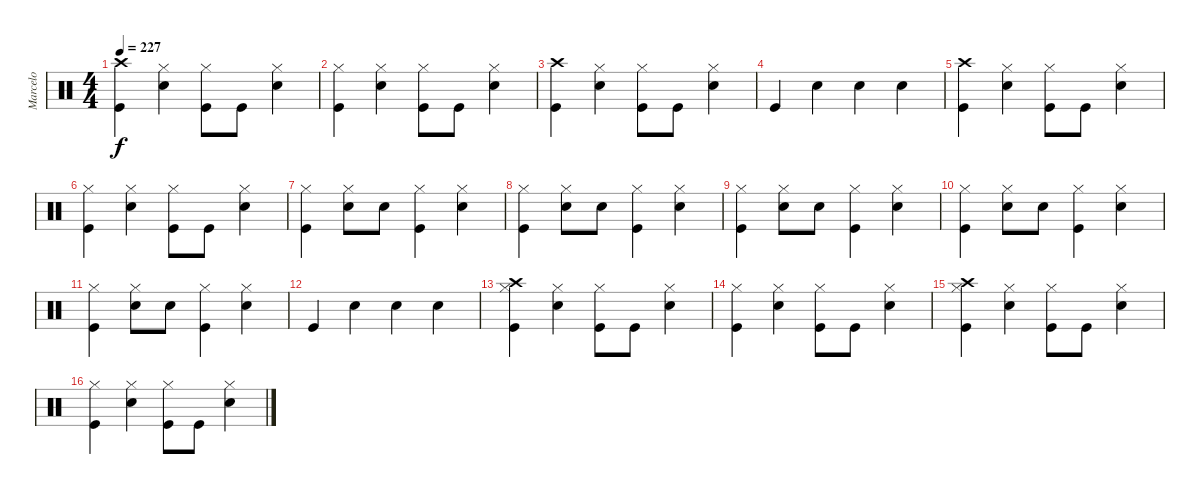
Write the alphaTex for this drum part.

\track ("Marcelo" "Marcelo") {instrument percussion}
\staff {score}
\articulation defaults
\ts (4 4)
\tempo 227
\clef neutral
\ks c
("Crash high (hit)" "Kick (hit)").4{dy f} ("Hi-Hat (closed)" "Snare (hit) 2").4 ("Hi-Hat (closed)" "Kick (hit)").8 "Kick (hit)".8 ("Hi-Hat (closed)" "Snare (hit) 2").4 |
("Hi-Hat (closed)" "Kick (hit)").4 ("Hi-Hat (closed)" "Snare (hit) 2").4 ("Hi-Hat (closed)" "Kick (hit)").8 "Kick (hit)".8 ("Hi-Hat (closed)" "Snare (hit) 2").4 |
("Crash high (hit)" "Kick (hit)").4 ("Hi-Hat (closed)" "Snare (hit) 2").4 ("Hi-Hat (closed)" "Kick (hit)").8 "Kick (hit)".8 ("Hi-Hat (closed)" "Snare (hit) 2").4 |
"Kick (hit)".4 "Snare (hit) 2".4 "Snare (hit) 2".4 "Snare (hit) 2".4 |
("Crash high (hit)" "Kick (hit)").4 ("Hi-Hat (closed)" "Snare (hit) 2").4 ("Hi-Hat (closed)" "Kick (hit)").8 "Kick (hit)".8 ("Hi-Hat (closed)" "Snare (hit) 2").4 |
("Hi-Hat (closed)" "Kick (hit)").4 ("Hi-Hat (closed)" "Snare (hit) 2").4 ("Hi-Hat (closed)" "Kick (hit)").8 "Kick (hit)".8 ("Hi-Hat (closed)" "Snare (hit) 2").4 |
("Hi-Hat (closed)" "Kick (hit)").4 ("Hi-Hat (closed)" "Snare (hit) 2").8 "Snare (hit) 2".8 ("Hi-Hat (closed)" "Kick (hit)").4 ("Hi-Hat (closed)" "Snare (hit) 2").4 |
("Hi-Hat (closed)" "Kick (hit)").4 ("Hi-Hat (closed)" "Snare (hit) 2").8 "Snare (hit) 2".8 ("Hi-Hat (closed)" "Kick (hit)").4 ("Hi-Hat (closed)" "Snare (hit) 2").4 |
("Hi-Hat (closed)" "Kick (hit)").4 ("Hi-Hat (closed)" "Snare (hit) 2").8 "Snare (hit) 2".8 ("Hi-Hat (closed)" "Kick (hit)").4 ("Hi-Hat (closed)" "Snare (hit) 2").4 |
("Hi-Hat (closed)" "Kick (hit)").4 ("Hi-Hat (closed)" "Snare (hit) 2").8 "Snare (hit) 2".8 ("Hi-Hat (closed)" "Kick (hit)").4 ("Hi-Hat (closed)" "Snare (hit) 2").4 |
("Hi-Hat (closed)" "Kick (hit)").4 ("Hi-Hat (closed)" "Snare (hit) 2").8 "Snare (hit) 2".8 ("Hi-Hat (closed)" "Kick (hit)").4 ("Hi-Hat (closed)" "Snare (hit) 2").4 |
"Kick (hit)".4 "Snare (hit) 2".4 "Snare (hit) 2".4 "Snare (hit) 2".4 |
("Crash high (hit)" "Hi-Hat (closed)" "Kick (hit)").4 ("Hi-Hat (closed)" "Snare (hit) 2").4 ("Hi-Hat (closed)" "Kick (hit)").8 "Kick (hit)".8 ("Hi-Hat (closed)" "Snare (hit) 2").4 |
("Hi-Hat (closed)" "Kick (hit)").4 ("Hi-Hat (closed)" "Snare (hit) 2").4 ("Hi-Hat (closed)" "Kick (hit)").8 "Kick (hit)".8 ("Hi-Hat (closed)" "Snare (hit) 2").4 |
("Crash high (hit)" "Hi-Hat (closed)" "Kick (hit)").4 ("Hi-Hat (closed)" "Snare (hit) 2").4 ("Hi-Hat (closed)" "Kick (hit)").8 "Kick (hit)".8 ("Hi-Hat (closed)" "Snare (hit) 2").4 |
("Hi-Hat (closed)" "Kick (hit)").4 ("Hi-Hat (closed)" "Snare (hit) 2").4 ("Hi-Hat (closed)" "Kick (hit)").8 "Kick (hit)".8 ("Hi-Hat (closed)" "Snare (hit) 2").4
